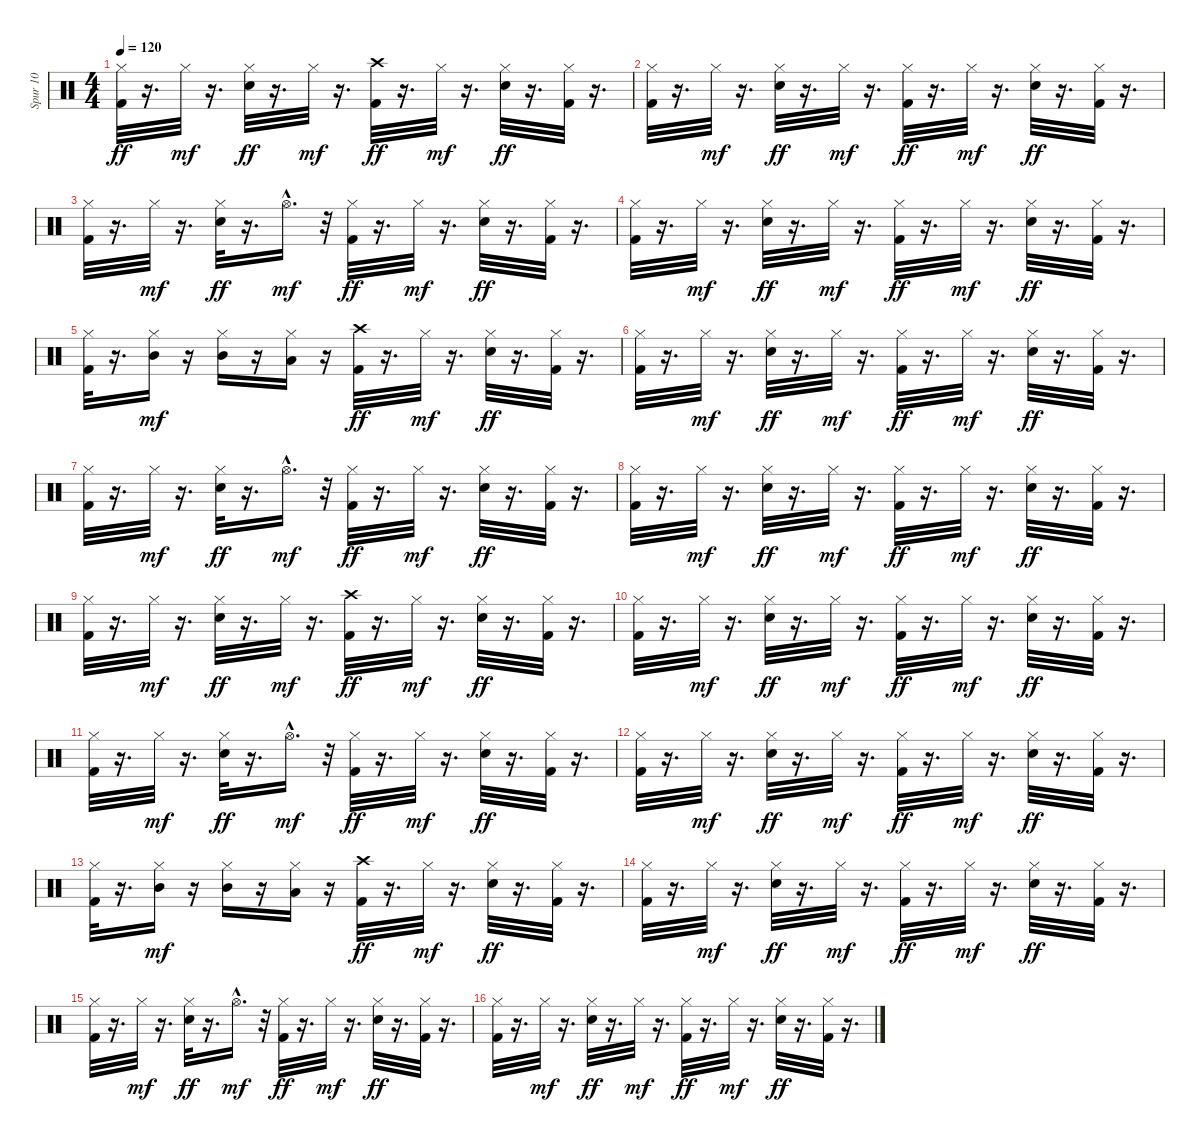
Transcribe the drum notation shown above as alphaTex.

\track ("Spur 10" "Spur 10") {instrument percussion}
\staff {score}
\articulation defaults
\ts (4 4)
\tempo 120
\clef neutral
\ks c
("Hi-Hat (closed)" "Kick (hit) 2").32{dy ff} r.16{d} "Hi-Hat (closed)".32{dy mf} r.16{d} ("Hi-Hat (closed)" "Snare (hit) 2").32{dy ff} r.16{d} "Hi-Hat (closed)".32{dy mf} r.16{d} ("Crash high (hit)" "Kick (hit) 2").32{dy ff} r.16{d} "Hi-Hat (closed)".32{dy mf} r.16{d} ("Hi-Hat (closed)" "Snare (hit) 2").32{dy ff} r.16{d} ("Hi-Hat (closed)" "Kick (hit) 2").32 r.16{d} |
("Hi-Hat (closed)" "Kick (hit) 2").32 r.16{d} "Hi-Hat (closed)".32{dy mf} r.16{d} ("Hi-Hat (closed)" "Snare (hit) 2").32{dy ff} r.16{d} "Hi-Hat (closed)".32{dy mf} r.16{d} ("Hi-Hat (closed)" "Kick (hit) 2").32{dy ff} r.16{d} "Hi-Hat (closed)".32{dy mf} r.16{d} ("Hi-Hat (closed)" "Snare (hit) 2").32{dy ff} r.16{d} ("Hi-Hat (closed)" "Kick (hit) 2").32 r.16{d} |
("Hi-Hat (closed)" "Kick (hit) 2").32 r.16{d} "Hi-Hat (closed)".32{dy mf} r.16{d} ("Hi-Hat (closed)" "Snare (hit) 2").32{dy ff} r.16{d} "Hi-Hat (open)"{hac}.16{d dy mf} r.32 ("Hi-Hat (closed)" "Kick (hit) 2").32{dy ff} r.16{d} "Hi-Hat (closed)".32{dy mf} r.16{d} ("Hi-Hat (closed)" "Snare (hit) 2").32{dy ff} r.16{d} ("Hi-Hat (closed)" "Kick (hit) 2").32 r.16{d} |
("Hi-Hat (closed)" "Kick (hit) 2").32 r.16{d} "Hi-Hat (closed)".32{dy mf} r.16{d} ("Hi-Hat (closed)" "Snare (hit) 2").32{dy ff} r.16{d} "Hi-Hat (closed)".32{dy mf} r.16{d} ("Hi-Hat (closed)" "Kick (hit) 2").32{dy ff} r.16{d} "Hi-Hat (closed)".32{dy mf} r.16{d} ("Hi-Hat (closed)" "Snare (hit) 2").32{dy ff} r.16{d} ("Hi-Hat (closed)" "Kick (hit) 2").32 r.16{d} |
("Hi-Hat (closed)" "Kick (hit) 2").32 r.16{d} ("Hi-Hat (closed)" "Mid Tom (hit)").16{dy mf} r.16 ("Hi-Hat (closed)" "Mid Tom (hit)").16 r.16 ("Hi-Hat (closed)" "Low Tom (hit)").16 r.16 ("Crash high (hit)" "Kick (hit) 2").32{dy ff} r.16{d} "Hi-Hat (closed)".32{dy mf} r.16{d} ("Hi-Hat (closed)" "Snare (hit) 2").32{dy ff} r.16{d} ("Hi-Hat (closed)" "Kick (hit) 2").32 r.16{d} |
("Hi-Hat (closed)" "Kick (hit) 2").32 r.16{d} "Hi-Hat (closed)".32{dy mf} r.16{d} ("Hi-Hat (closed)" "Snare (hit) 2").32{dy ff} r.16{d} "Hi-Hat (closed)".32{dy mf} r.16{d} ("Hi-Hat (closed)" "Kick (hit) 2").32{dy ff} r.16{d} "Hi-Hat (closed)".32{dy mf} r.16{d} ("Hi-Hat (closed)" "Snare (hit) 2").32{dy ff} r.16{d} ("Hi-Hat (closed)" "Kick (hit) 2").32 r.16{d} |
("Hi-Hat (closed)" "Kick (hit) 2").32 r.16{d} "Hi-Hat (closed)".32{dy mf} r.16{d} ("Hi-Hat (closed)" "Snare (hit) 2").32{dy ff} r.16{d} "Hi-Hat (open)"{hac}.16{d dy mf} r.32 ("Hi-Hat (closed)" "Kick (hit) 2").32{dy ff} r.16{d} "Hi-Hat (closed)".32{dy mf} r.16{d} ("Hi-Hat (closed)" "Snare (hit) 2").32{dy ff} r.16{d} ("Hi-Hat (closed)" "Kick (hit) 2").32 r.16{d} |
("Hi-Hat (closed)" "Kick (hit) 2").32 r.16{d} "Hi-Hat (closed)".32{dy mf} r.16{d} ("Hi-Hat (closed)" "Snare (hit) 2").32{dy ff} r.16{d} "Hi-Hat (closed)".32{dy mf} r.16{d} ("Hi-Hat (closed)" "Kick (hit) 2").32{dy ff} r.16{d} "Hi-Hat (closed)".32{dy mf} r.16{d} ("Hi-Hat (closed)" "Snare (hit) 2").32{dy ff} r.16{d} ("Hi-Hat (closed)" "Kick (hit) 2").32 r.16{d} |
("Hi-Hat (closed)" "Kick (hit) 2").32 r.16{d} "Hi-Hat (closed)".32{dy mf} r.16{d} ("Hi-Hat (closed)" "Snare (hit) 2").32{dy ff} r.16{d} "Hi-Hat (closed)".32{dy mf} r.16{d} ("Crash high (hit)" "Kick (hit) 2").32{dy ff} r.16{d} "Hi-Hat (closed)".32{dy mf} r.16{d} ("Hi-Hat (closed)" "Snare (hit) 2").32{dy ff} r.16{d} ("Hi-Hat (closed)" "Kick (hit) 2").32 r.16{d} |
("Hi-Hat (closed)" "Kick (hit) 2").32 r.16{d} "Hi-Hat (closed)".32{dy mf} r.16{d} ("Hi-Hat (closed)" "Snare (hit) 2").32{dy ff} r.16{d} "Hi-Hat (closed)".32{dy mf} r.16{d} ("Hi-Hat (closed)" "Kick (hit) 2").32{dy ff} r.16{d} "Hi-Hat (closed)".32{dy mf} r.16{d} ("Hi-Hat (closed)" "Snare (hit) 2").32{dy ff} r.16{d} ("Hi-Hat (closed)" "Kick (hit) 2").32 r.16{d} |
("Hi-Hat (closed)" "Kick (hit) 2").32 r.16{d} "Hi-Hat (closed)".32{dy mf} r.16{d} ("Hi-Hat (closed)" "Snare (hit) 2").32{dy ff} r.16{d} "Hi-Hat (open)"{hac}.16{d dy mf} r.32 ("Hi-Hat (closed)" "Kick (hit) 2").32{dy ff} r.16{d} "Hi-Hat (closed)".32{dy mf} r.16{d} ("Hi-Hat (closed)" "Snare (hit) 2").32{dy ff} r.16{d} ("Hi-Hat (closed)" "Kick (hit) 2").32 r.16{d} |
("Hi-Hat (closed)" "Kick (hit) 2").32 r.16{d} "Hi-Hat (closed)".32{dy mf} r.16{d} ("Hi-Hat (closed)" "Snare (hit) 2").32{dy ff} r.16{d} "Hi-Hat (closed)".32{dy mf} r.16{d} ("Hi-Hat (closed)" "Kick (hit) 2").32{dy ff} r.16{d} "Hi-Hat (closed)".32{dy mf} r.16{d} ("Hi-Hat (closed)" "Snare (hit) 2").32{dy ff} r.16{d} ("Hi-Hat (closed)" "Kick (hit) 2").32 r.16{d} |
("Hi-Hat (closed)" "Kick (hit) 2").32 r.16{d} ("Hi-Hat (closed)" "Mid Tom (hit)").16{dy mf} r.16 ("Hi-Hat (closed)" "Mid Tom (hit)").16 r.16 ("Hi-Hat (closed)" "Low Tom (hit)").16 r.16 ("Crash high (hit)" "Kick (hit) 2").32{dy ff} r.16{d} "Hi-Hat (closed)".32{dy mf} r.16{d} ("Hi-Hat (closed)" "Snare (hit) 2").32{dy ff} r.16{d} ("Hi-Hat (closed)" "Kick (hit) 2").32 r.16{d} |
("Hi-Hat (closed)" "Kick (hit) 2").32 r.16{d} "Hi-Hat (closed)".32{dy mf} r.16{d} ("Hi-Hat (closed)" "Snare (hit) 2").32{dy ff} r.16{d} "Hi-Hat (closed)".32{dy mf} r.16{d} ("Hi-Hat (closed)" "Kick (hit) 2").32{dy ff} r.16{d} "Hi-Hat (closed)".32{dy mf} r.16{d} ("Hi-Hat (closed)" "Snare (hit) 2").32{dy ff} r.16{d} ("Hi-Hat (closed)" "Kick (hit) 2").32 r.16{d} |
("Hi-Hat (closed)" "Kick (hit) 2").32 r.16{d} "Hi-Hat (closed)".32{dy mf} r.16{d} ("Hi-Hat (closed)" "Snare (hit) 2").32{dy ff} r.16{d} "Hi-Hat (open)"{hac}.16{d dy mf} r.32 ("Hi-Hat (closed)" "Kick (hit) 2").32{dy ff} r.16{d} "Hi-Hat (closed)".32{dy mf} r.16{d} ("Hi-Hat (closed)" "Snare (hit) 2").32{dy ff} r.16{d} ("Hi-Hat (closed)" "Kick (hit) 2").32 r.16{d} |
("Hi-Hat (closed)" "Kick (hit) 2").32 r.16{d} "Hi-Hat (closed)".32{dy mf} r.16{d} ("Hi-Hat (closed)" "Snare (hit) 2").32{dy ff} r.16{d} "Hi-Hat (closed)".32{dy mf} r.16{d} ("Hi-Hat (closed)" "Kick (hit) 2").32{dy ff} r.16{d} "Hi-Hat (closed)".32{dy mf} r.16{d} ("Hi-Hat (closed)" "Snare (hit) 2").32{dy ff} r.16{d} ("Hi-Hat (closed)" "Kick (hit) 2").32 r.16{d}
